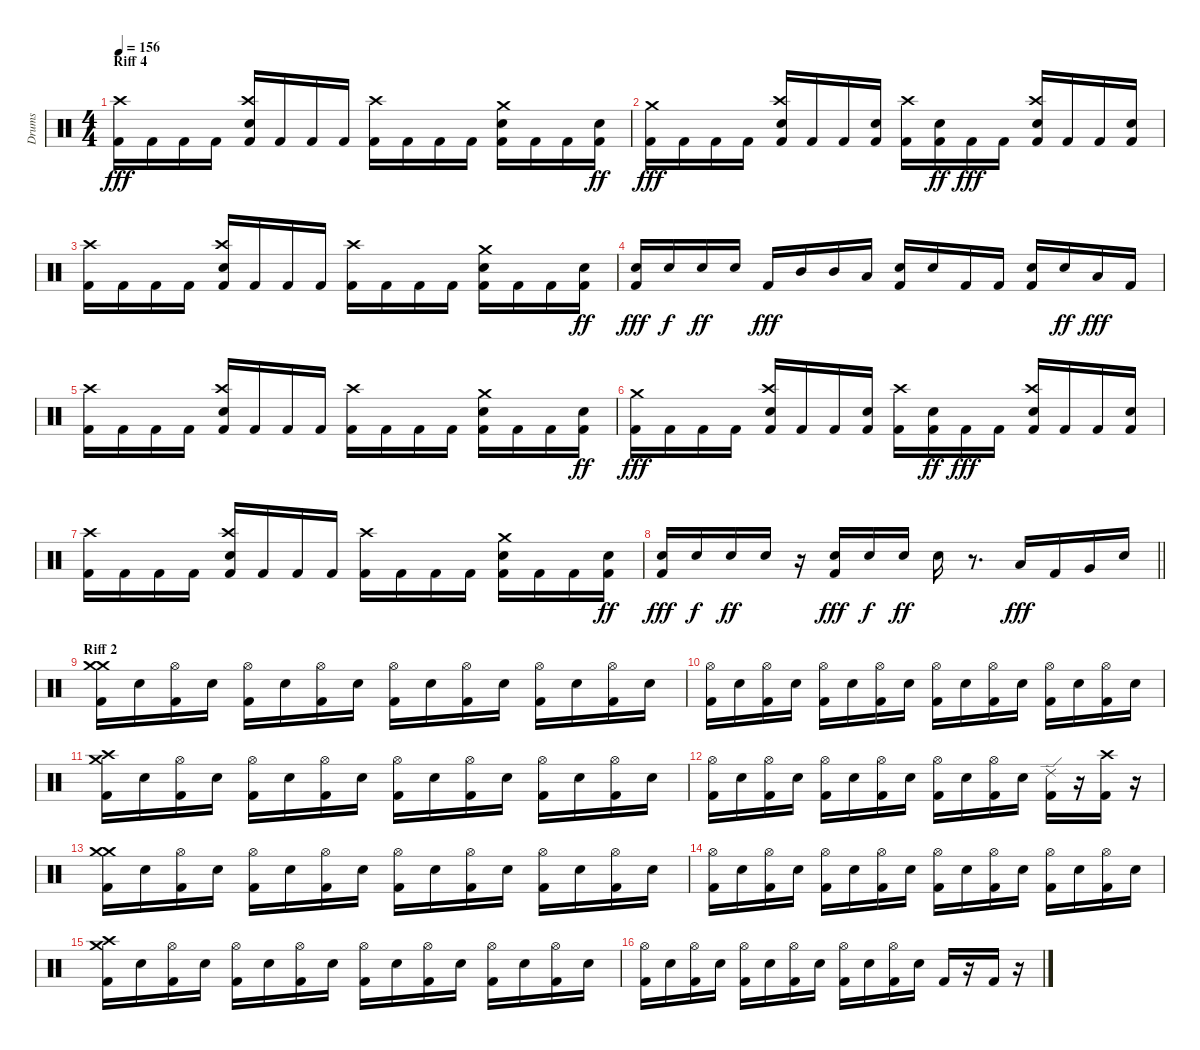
\track ("Drums" "Drums") {instrument percussion}
\staff {score}
\articulation defaults
\ts (4 4)
\section ("" "Riff 4")
\tempo 156
\clef neutral
\ks c
("Kick (hit) 2" "Crash high (hit)").16{dy fff} "Kick (hit) 2".16 "Kick (hit) 2".16 "Kick (hit) 2".16 ("Kick (hit) 2" "Snare (hit) 2" "Crash high (hit)").16 "Kick (hit) 2".16 "Kick (hit) 2".16 "Kick (hit) 2".16 ("Kick (hit) 2" "Crash high (hit)").16 "Kick (hit) 2".16 "Kick (hit) 2".16 "Kick (hit) 2".16 ("Kick (hit) 2" "Snare (hit) 2" "Crash medium (hit)").16 "Kick (hit) 2".16 "Kick (hit) 2".16 ("Kick (hit) 2" "Snare (hit) 2").16{dy ff} |
("Kick (hit) 2" "Crash medium (hit)").16{dy fff} "Kick (hit) 2".16 "Kick (hit) 2".16 "Kick (hit) 2".16 ("Kick (hit) 2" "Snare (hit) 2" "Crash high (hit)").16 "Kick (hit) 2".16 "Kick (hit) 2".16 ("Kick (hit) 2" "Snare (hit) 2").16 ("Kick (hit) 2" "Crash high (hit)").16 ("Kick (hit) 2" "Snare (hit) 2").16{dy ff} "Kick (hit) 2".16{dy fff} "Kick (hit) 2".16 ("Kick (hit) 2" "Snare (hit) 2" "Crash high (hit)").16 "Kick (hit) 2".16 "Kick (hit) 2".16 ("Kick (hit) 2" "Snare (hit) 2").16 |
("Kick (hit) 2" "Crash high (hit)").16 "Kick (hit) 2".16 "Kick (hit) 2".16 "Kick (hit) 2".16 ("Kick (hit) 2" "Snare (hit) 2" "Crash high (hit)").16 "Kick (hit) 2".16 "Kick (hit) 2".16 "Kick (hit) 2".16 ("Kick (hit) 2" "Crash high (hit)").16 "Kick (hit) 2".16 "Kick (hit) 2".16 "Kick (hit) 2".16 ("Kick (hit) 2" "Snare (hit) 2" "Crash medium (hit)").16 "Kick (hit) 2".16 "Kick (hit) 2".16 ("Kick (hit) 2" "Snare (hit) 2").16{dy ff} |
("Kick (hit) 2" "Snare (hit) 2").16{dy fff} "Snare (hit) 2".16{dy f} "Snare (hit) 2".16{dy ff} "Snare (hit) 2".16 "Kick (hit) 2".16{dy fff} "Mid Tom (hit)".16 "Mid Tom (hit)".16 "Low Tom (hit)".16 ("Kick (hit) 2" "Snare (hit) 2").16 "Snare (hit) 2".16 "Kick (hit) 2".16 "Kick (hit) 2".16 ("Kick (hit) 2" "Snare (hit) 2").16 "Snare (hit) 2".16{dy ff} "Low Tom (hit)".16{dy fff} "Kick (hit) 2".16 |
("Kick (hit) 2" "Crash high (hit)").16 "Kick (hit) 2".16 "Kick (hit) 2".16 "Kick (hit) 2".16 ("Kick (hit) 2" "Snare (hit) 2" "Crash high (hit)").16 "Kick (hit) 2".16 "Kick (hit) 2".16 "Kick (hit) 2".16 ("Kick (hit) 2" "Crash high (hit)").16 "Kick (hit) 2".16 "Kick (hit) 2".16 "Kick (hit) 2".16 ("Kick (hit) 2" "Snare (hit) 2" "Crash medium (hit)").16 "Kick (hit) 2".16 "Kick (hit) 2".16 ("Kick (hit) 2" "Snare (hit) 2").16{dy ff} |
("Kick (hit) 2" "Crash medium (hit)").16{dy fff} "Kick (hit) 2".16 "Kick (hit) 2".16 "Kick (hit) 2".16 ("Kick (hit) 2" "Snare (hit) 2" "Crash high (hit)").16 "Kick (hit) 2".16 "Kick (hit) 2".16 ("Kick (hit) 2" "Snare (hit) 2").16 ("Kick (hit) 2" "Crash high (hit)").16 ("Kick (hit) 2" "Snare (hit) 2").16{dy ff} "Kick (hit) 2".16{dy fff} "Kick (hit) 2".16 ("Kick (hit) 2" "Snare (hit) 2" "Crash high (hit)").16 "Kick (hit) 2".16 "Kick (hit) 2".16 ("Kick (hit) 2" "Snare (hit) 2").16 |
("Kick (hit) 2" "Crash high (hit)").16 "Kick (hit) 2".16 "Kick (hit) 2".16 "Kick (hit) 2".16 ("Kick (hit) 2" "Snare (hit) 2" "Crash high (hit)").16 "Kick (hit) 2".16 "Kick (hit) 2".16 "Kick (hit) 2".16 ("Kick (hit) 2" "Crash high (hit)").16 "Kick (hit) 2".16 "Kick (hit) 2".16 "Kick (hit) 2".16 ("Kick (hit) 2" "Snare (hit) 2" "Crash medium (hit)").16 "Kick (hit) 2".16 "Kick (hit) 2".16 ("Kick (hit) 2" "Snare (hit) 2").16{dy ff} |
\barLineRight lightlight
("Kick (hit) 2" "Snare (hit) 2").16{dy fff} "Snare (hit) 2".16{dy f} "Snare (hit) 2".16{dy ff} "Snare (hit) 2".16 r.16 ("Kick (hit) 2" "Snare (hit) 2").16{dy fff} "Snare (hit) 2".16{dy f} "Snare (hit) 2".16{dy ff} "Snare (hit) 2".16 r.8{d} "Low Tom (hit)".16{dy fff} "Kick (hit) 2".16 "Very Low Tom (hit)".16 "Snare (hit) 2".16 |
\section ("" "Riff 2")
("Kick (hit) 2" "Crash medium (hit)" "Crash medium (hit)").16 "Snare (hit) 2".16 ("Kick (hit) 2" "Hi-Hat (open)").16 "Snare (hit) 2".16 ("Kick (hit) 2" "Hi-Hat (open)").16 "Snare (hit) 2".16 ("Kick (hit) 2" "Hi-Hat (open)").16 "Snare (hit) 2".16 ("Kick (hit) 2" "Hi-Hat (open)").16 "Snare (hit) 2".16 ("Kick (hit) 2" "Hi-Hat (open)").16 "Snare (hit) 2".16 ("Kick (hit) 2" "Hi-Hat (open)").16 "Snare (hit) 2".16 ("Kick (hit) 2" "Hi-Hat (open)").16 "Snare (hit) 2".16 |
("Kick (hit) 2" "Hi-Hat (open)").16 "Snare (hit) 2".16 ("Kick (hit) 2" "Hi-Hat (open)").16 "Snare (hit) 2".16 ("Kick (hit) 2" "Hi-Hat (open)").16 "Snare (hit) 2".16 ("Kick (hit) 2" "Hi-Hat (open)").16 "Snare (hit) 2".16 ("Kick (hit) 2" "Hi-Hat (open)").16 "Snare (hit) 2".16 ("Kick (hit) 2" "Hi-Hat (open)").16 "Snare (hit) 2".16 ("Kick (hit) 2" "Hi-Hat (open)").16 "Snare (hit) 2".16 ("Kick (hit) 2" "Hi-Hat (open)").16 "Snare (hit) 2".16 |
("Kick (hit) 2" "Crash high (hit)" "Crash medium (hit)").16 "Snare (hit) 2".16 ("Kick (hit) 2" "Hi-Hat (open)").16 "Snare (hit) 2".16 ("Kick (hit) 2" "Hi-Hat (open)").16 "Snare (hit) 2".16 ("Kick (hit) 2" "Hi-Hat (open)").16 "Snare (hit) 2".16 ("Kick (hit) 2" "Hi-Hat (open)").16 "Snare (hit) 2".16 ("Kick (hit) 2" "Hi-Hat (open)").16 "Snare (hit) 2".16 ("Kick (hit) 2" "Hi-Hat (open)").16 "Snare (hit) 2".16 ("Kick (hit) 2" "Hi-Hat (open)").16 "Snare (hit) 2".16 |
("Kick (hit) 2" "Hi-Hat (open)").16 "Snare (hit) 2".16 ("Kick (hit) 2" "Hi-Hat (open)").16 "Snare (hit) 2".16 ("Kick (hit) 2" "Hi-Hat (open)").16 "Snare (hit) 2".16 ("Kick (hit) 2" "Hi-Hat (open)").16 "Snare (hit) 2".16 ("Kick (hit) 2" "Hi-Hat (open)").16 "Snare (hit) 2".16 ("Kick (hit) 2" "Hi-Hat (open)").16 "Snare (hit) 2".16 ("Kick (hit) 2" "Ride (edge) 2").16 r.16 ("Kick (hit) 2" "Crash high (hit)").16 r.16 |
("Kick (hit) 2" "Crash medium (hit)" "Crash medium (hit)").16 "Snare (hit) 2".16 ("Kick (hit) 2" "Hi-Hat (open)").16 "Snare (hit) 2".16 ("Kick (hit) 2" "Hi-Hat (open)").16 "Snare (hit) 2".16 ("Kick (hit) 2" "Hi-Hat (open)").16 "Snare (hit) 2".16 ("Kick (hit) 2" "Hi-Hat (open)").16 "Snare (hit) 2".16 ("Kick (hit) 2" "Hi-Hat (open)").16 "Snare (hit) 2".16 ("Kick (hit) 2" "Hi-Hat (open)").16 "Snare (hit) 2".16 ("Kick (hit) 2" "Hi-Hat (open)").16 "Snare (hit) 2".16 |
("Kick (hit) 2" "Hi-Hat (open)").16 "Snare (hit) 2".16 ("Kick (hit) 2" "Hi-Hat (open)").16 "Snare (hit) 2".16 ("Kick (hit) 2" "Hi-Hat (open)").16 "Snare (hit) 2".16 ("Kick (hit) 2" "Hi-Hat (open)").16 "Snare (hit) 2".16 ("Kick (hit) 2" "Hi-Hat (open)").16 "Snare (hit) 2".16 ("Kick (hit) 2" "Hi-Hat (open)").16 "Snare (hit) 2".16 ("Kick (hit) 2" "Hi-Hat (open)").16 "Snare (hit) 2".16 ("Kick (hit) 2" "Hi-Hat (open)").16 "Snare (hit) 2".16 |
("Kick (hit) 2" "Crash high (hit)" "Crash medium (hit)").16 "Snare (hit) 2".16 ("Kick (hit) 2" "Hi-Hat (open)").16 "Snare (hit) 2".16 ("Kick (hit) 2" "Hi-Hat (open)").16 "Snare (hit) 2".16 ("Kick (hit) 2" "Hi-Hat (open)").16 "Snare (hit) 2".16 ("Kick (hit) 2" "Hi-Hat (open)").16 "Snare (hit) 2".16 ("Kick (hit) 2" "Hi-Hat (open)").16 "Snare (hit) 2".16 ("Kick (hit) 2" "Hi-Hat (open)").16 "Snare (hit) 2".16 ("Kick (hit) 2" "Hi-Hat (open)").16 "Snare (hit) 2".16 |
("Kick (hit) 2" "Hi-Hat (open)").16 "Snare (hit) 2".16 ("Kick (hit) 2" "Hi-Hat (open)").16 "Snare (hit) 2".16 ("Kick (hit) 2" "Hi-Hat (open)").16 "Snare (hit) 2".16 ("Kick (hit) 2" "Hi-Hat (open)").16 "Snare (hit) 2".16 ("Kick (hit) 2" "Hi-Hat (open)").16 "Snare (hit) 2".16 ("Kick (hit) 2" "Hi-Hat (open)").16 "Snare (hit) 2".16 "Kick (hit) 2".16 r.16 "Kick (hit) 2".16 r.16
